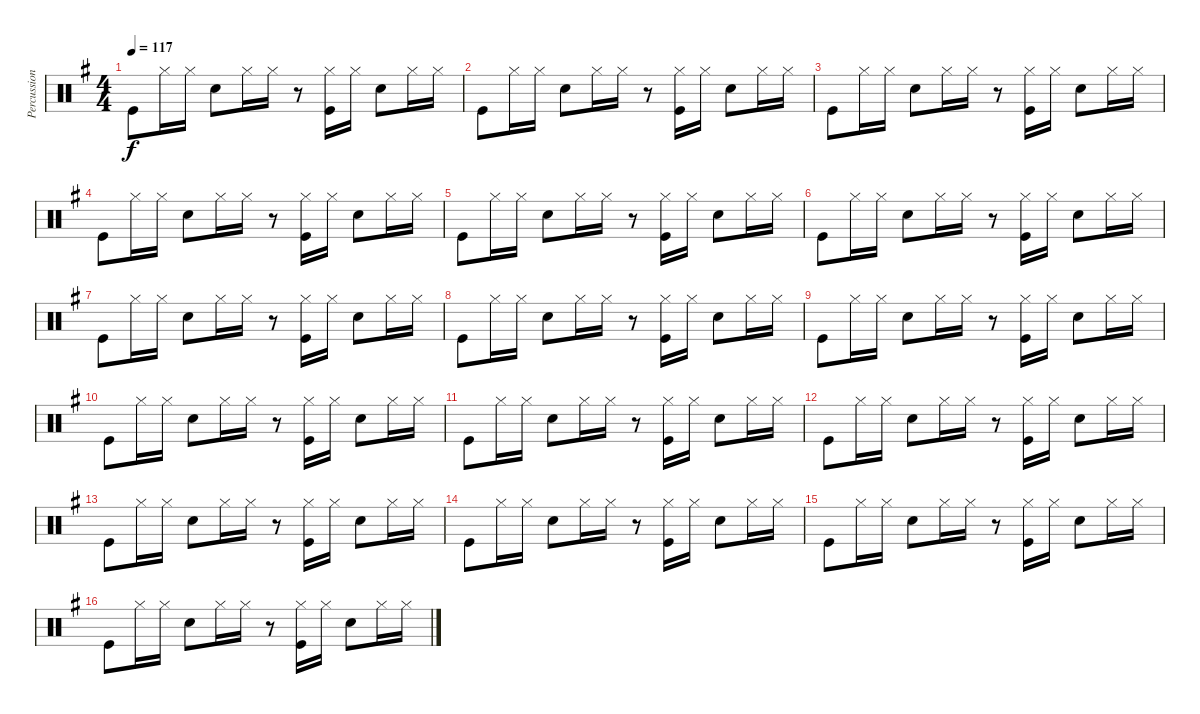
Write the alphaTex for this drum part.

\track ("Percussion" "Percussion") {instrument percussion}
\staff {score}
\articulation defaults
\ts (4 4)
\tempo 117
\clef neutral
\ks g "Kick (hit)".8{dy f} "Hi-Hat (closed)".16 "Hi-Hat (closed)".16 "Snare (hit) 2".8 "Hi-Hat (closed)".16 "Hi-Hat (closed)".16
r.8 ("Hi-Hat (closed)" "Kick (hit)").16 "Hi-Hat (closed)".16 "Snare (hit) 2".8 "Hi-Hat (closed)".16 "Hi-Hat (closed)".16 |
"Kick (hit)".8 "Hi-Hat (closed)".16 "Hi-Hat (closed)".16 "Snare (hit) 2".8 "Hi-Hat (closed)".16 "Hi-Hat (closed)".16 r.8 ("Hi-Hat (closed)" "Kick (hit)").16 "Hi-Hat (closed)".16 "Snare (hit) 2".8 "Hi-Hat (closed)".16 "Hi-Hat (closed)".16 |
"Kick (hit)".8 "Hi-Hat (closed)".16 "Hi-Hat (closed)".16 "Snare (hit) 2".8 "Hi-Hat (closed)".16 "Hi-Hat (closed)".16 r.8 ("Hi-Hat (closed)" "Kick (hit)").16 "Hi-Hat (closed)".16 "Snare (hit) 2".8 "Hi-Hat (closed)".16 "Hi-Hat (closed)".16 |
"Kick (hit)".8 "Hi-Hat (closed)".16 "Hi-Hat (closed)".16 "Snare (hit) 2".8 "Hi-Hat (closed)".16 "Hi-Hat (closed)".16 r.8 ("Hi-Hat (closed)" "Kick (hit)").16 "Hi-Hat (closed)".16 "Snare (hit) 2".8 "Hi-Hat (closed)".16 "Hi-Hat (closed)".16 |
"Kick (hit)".8 "Hi-Hat (closed)".16 "Hi-Hat (closed)".16 "Snare (hit) 2".8 "Hi-Hat (closed)".16 "Hi-Hat (closed)".16 r.8 ("Hi-Hat (closed)" "Kick (hit)").16 "Hi-Hat (closed)".16 "Snare (hit) 2".8 "Hi-Hat (closed)".16 "Hi-Hat (closed)".16 |
"Kick (hit)".8 "Hi-Hat (closed)".16 "Hi-Hat (closed)".16 "Snare (hit) 2".8 "Hi-Hat (closed)".16 "Hi-Hat (closed)".16 r.8 ("Hi-Hat (closed)" "Kick (hit)").16 "Hi-Hat (closed)".16 "Snare (hit) 2".8 "Hi-Hat (closed)".16 "Hi-Hat (closed)".16 |
"Kick (hit)".8 "Hi-Hat (closed)".16 "Hi-Hat (closed)".16 "Snare (hit) 2".8 "Hi-Hat (closed)".16 "Hi-Hat (closed)".16 r.8 ("Hi-Hat (closed)" "Kick (hit)").16 "Hi-Hat (closed)".16 "Snare (hit) 2".8 "Hi-Hat (closed)".16 "Hi-Hat (closed)".16 |
"Kick (hit)".8 "Hi-Hat (closed)".16 "Hi-Hat (closed)".16 "Snare (hit) 2".8 "Hi-Hat (closed)".16 "Hi-Hat (closed)".16 r.8 ("Hi-Hat (closed)" "Kick (hit)").16 "Hi-Hat (closed)".16 "Snare (hit) 2".8 "Hi-Hat (closed)".16 "Hi-Hat (closed)".16 |
"Kick (hit)".8 "Hi-Hat (closed)".16 "Hi-Hat (closed)".16 "Snare (hit) 2".8 "Hi-Hat (closed)".16 "Hi-Hat (closed)".16 r.8 ("Hi-Hat (closed)" "Kick (hit)").16 "Hi-Hat (closed)".16 "Snare (hit) 2".8 "Hi-Hat (closed)".16 "Hi-Hat (closed)".16 |
"Kick (hit)".8 "Hi-Hat (closed)".16 "Hi-Hat (closed)".16 "Snare (hit) 2".8 "Hi-Hat (closed)".16 "Hi-Hat (closed)".16 r.8 ("Hi-Hat (closed)" "Kick (hit)").16 "Hi-Hat (closed)".16 "Snare (hit) 2".8 "Hi-Hat (closed)".16 "Hi-Hat (closed)".16 |
"Kick (hit)".8 "Hi-Hat (closed)".16 "Hi-Hat (closed)".16 "Snare (hit) 2".8 "Hi-Hat (closed)".16 "Hi-Hat (closed)".16 r.8 ("Hi-Hat (closed)" "Kick (hit)").16 "Hi-Hat (closed)".16 "Snare (hit) 2".8 "Hi-Hat (closed)".16 "Hi-Hat (closed)".16 |
"Kick (hit)".8 "Hi-Hat (closed)".16 "Hi-Hat (closed)".16 "Snare (hit) 2".8 "Hi-Hat (closed)".16 "Hi-Hat (closed)".16 r.8 ("Hi-Hat (closed)" "Kick (hit)").16 "Hi-Hat (closed)".16 "Snare (hit) 2".8 "Hi-Hat (closed)".16 "Hi-Hat (closed)".16 |
"Kick (hit)".8 "Hi-Hat (closed)".16 "Hi-Hat (closed)".16 "Snare (hit) 2".8 "Hi-Hat (closed)".16 "Hi-Hat (closed)".16 r.8 ("Hi-Hat (closed)" "Kick (hit)").16 "Hi-Hat (closed)".16 "Snare (hit) 2".8 "Hi-Hat (closed)".16 "Hi-Hat (closed)".16 |
"Kick (hit)".8 "Hi-Hat (closed)".16 "Hi-Hat (closed)".16 "Snare (hit) 2".8 "Hi-Hat (closed)".16 "Hi-Hat (closed)".16 r.8 ("Hi-Hat (closed)" "Kick (hit)").16 "Hi-Hat (closed)".16 "Snare (hit) 2".8 "Hi-Hat (closed)".16 "Hi-Hat (closed)".16 |
"Kick (hit)".8 "Hi-Hat (closed)".16 "Hi-Hat (closed)".16 "Snare (hit) 2".8 "Hi-Hat (closed)".16 "Hi-Hat (closed)".16 r.8 ("Hi-Hat (closed)" "Kick (hit)").16 "Hi-Hat (closed)".16 "Snare (hit) 2".8 "Hi-Hat (closed)".16 "Hi-Hat (closed)".16 |
"Kick (hit)".8 "Hi-Hat (closed)".16 "Hi-Hat (closed)".16 "Snare (hit) 2".8 "Hi-Hat (closed)".16 "Hi-Hat (closed)".16 r.8 ("Hi-Hat (closed)" "Kick (hit)").16 "Hi-Hat (closed)".16 "Snare (hit) 2".8 "Hi-Hat (closed)".16 "Hi-Hat (closed)".16
